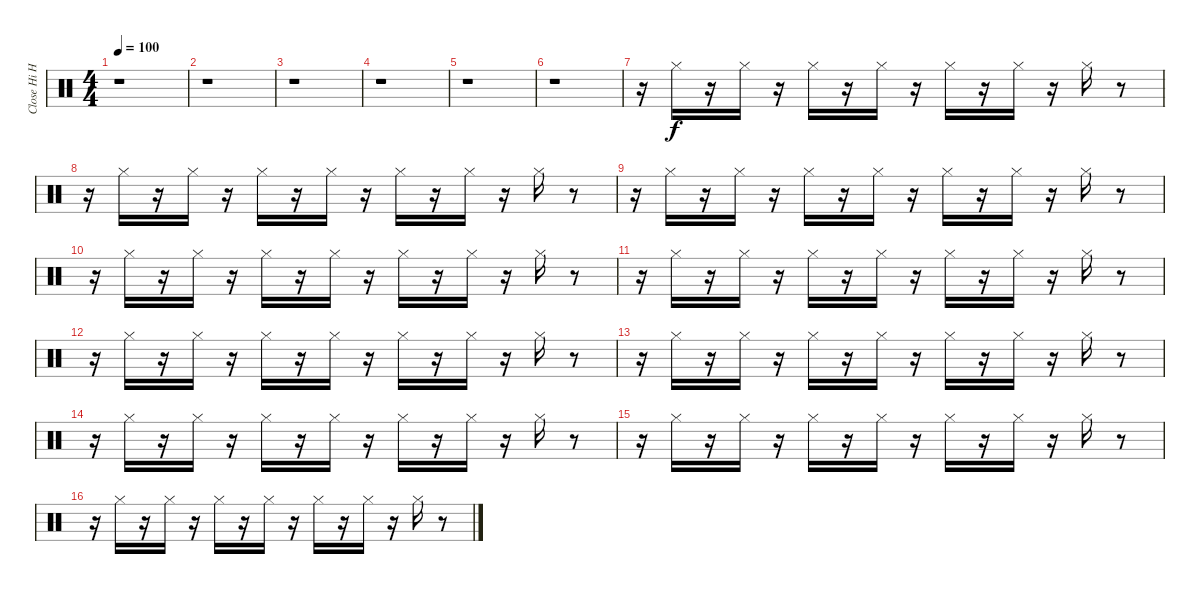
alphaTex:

\track ("Close Hi Hat" "Close Hi H") {instrument percussion}
\staff {score}
\articulation defaults
\ts (4 4)
\tempo 100
\clef neutral
\ks c
r.1{dy f} |
r.1 |
r.1 |
r.1 |
r.1 |
r.1 |
r.16 "Hi-Hat (closed)".16 r.16 "Hi-Hat (closed)".16 r.16 "Hi-Hat (closed)".16 r.16 "Hi-Hat (closed)".16 r.16 "Hi-Hat (closed)".16 r.16 "Hi-Hat (closed)".16 r.16 "Hi-Hat (closed)".16 r.8 |
r.16 "Hi-Hat (closed)".16 r.16 "Hi-Hat (closed)".16 r.16 "Hi-Hat (closed)".16 r.16 "Hi-Hat (closed)".16 r.16 "Hi-Hat (closed)".16 r.16 "Hi-Hat (closed)".16 r.16 "Hi-Hat (closed)".16 r.8 |
r.16 "Hi-Hat (closed)".16 r.16 "Hi-Hat (closed)".16 r.16 "Hi-Hat (closed)".16 r.16 "Hi-Hat (closed)".16 r.16 "Hi-Hat (closed)".16 r.16 "Hi-Hat (closed)".16 r.16 "Hi-Hat (closed)".16 r.8 |
r.16 "Hi-Hat (closed)".16 r.16 "Hi-Hat (closed)".16 r.16 "Hi-Hat (closed)".16 r.16 "Hi-Hat (closed)".16 r.16 "Hi-Hat (closed)".16 r.16 "Hi-Hat (closed)".16 r.16 "Hi-Hat (closed)".16 r.8 |
r.16 "Hi-Hat (closed)".16 r.16 "Hi-Hat (closed)".16 r.16 "Hi-Hat (closed)".16 r.16 "Hi-Hat (closed)".16 r.16 "Hi-Hat (closed)".16 r.16 "Hi-Hat (closed)".16 r.16 "Hi-Hat (closed)".16 r.8 |
r.16 "Hi-Hat (closed)".16 r.16 "Hi-Hat (closed)".16 r.16 "Hi-Hat (closed)".16 r.16 "Hi-Hat (closed)".16 r.16 "Hi-Hat (closed)".16 r.16 "Hi-Hat (closed)".16 r.16 "Hi-Hat (closed)".16 r.8 |
r.16 "Hi-Hat (closed)".16 r.16 "Hi-Hat (closed)".16 r.16 "Hi-Hat (closed)".16 r.16 "Hi-Hat (closed)".16 r.16 "Hi-Hat (closed)".16 r.16 "Hi-Hat (closed)".16 r.16 "Hi-Hat (closed)".16 r.8 |
r.16 "Hi-Hat (closed)".16 r.16 "Hi-Hat (closed)".16 r.16 "Hi-Hat (closed)".16 r.16 "Hi-Hat (closed)".16 r.16 "Hi-Hat (closed)".16 r.16 "Hi-Hat (closed)".16 r.16 "Hi-Hat (closed)".16 r.8 |
r.16 "Hi-Hat (closed)".16 r.16 "Hi-Hat (closed)".16 r.16 "Hi-Hat (closed)".16 r.16 "Hi-Hat (closed)".16 r.16 "Hi-Hat (closed)".16 r.16 "Hi-Hat (closed)".16 r.16 "Hi-Hat (closed)".16 r.8 |
r.16 "Hi-Hat (closed)".16 r.16 "Hi-Hat (closed)".16 r.16 "Hi-Hat (closed)".16 r.16 "Hi-Hat (closed)".16 r.16 "Hi-Hat (closed)".16 r.16 "Hi-Hat (closed)".16 r.16 "Hi-Hat (closed)".16 r.8
